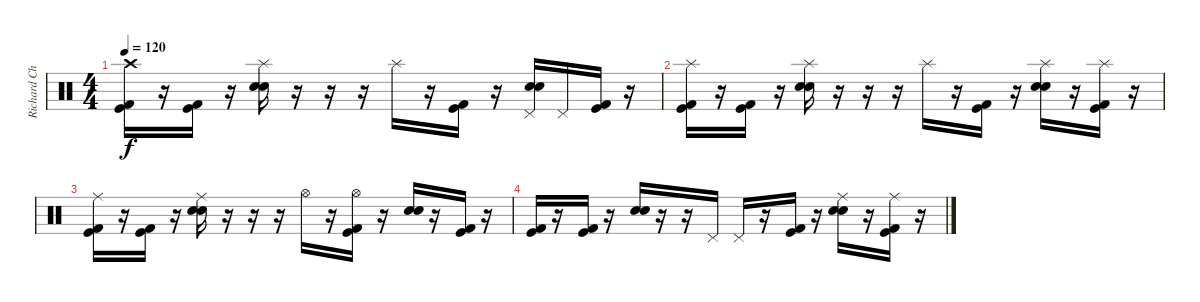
\track ("Richard Christy" "Richard Ch") {instrument percussion}
\staff {score}
\articulation defaults
\ts (4 4)
\tempo 120
\clef neutral
\ks c
("Crash high (hit)" "Kick (hit)" "Kick (hit) 2").16{dy f} r.16 ("Kick (hit)" "Kick (hit) 2").16 r.16 ("Splash (hit)" "Electric Snare (hit)" "Snare (hit) 2").16 r.16 r.16 r.16 "Splash (hit)".16 r.16 ("Kick (hit)" "Kick (hit) 2").16 r.16 ("Pedal Hi-Hat (hit)" "Electric Snare (hit)" "Snare (hit) 2").16 "Pedal Hi-Hat (hit)".16 ("Kick (hit)" "Kick (hit) 2").16 r.16 |
("Splash (hit)" "Kick (hit)" "Kick (hit) 2").16 r.16 ("Kick (hit)" "Kick (hit) 2").16 r.16 ("Splash (hit)" "Electric Snare (hit)" "Snare (hit) 2").16 r.16 r.16 r.16 "Splash (hit)".16 r.16 ("Kick (hit)" "Kick (hit) 2").16 r.16 ("Splash (hit)" "Electric Snare (hit)" "Snare (hit) 2").16 r.16 ("Splash (hit)" "Kick (hit)" "Kick (hit) 2").16 r.16 |
("Ride (middle)" "Kick (hit)" "Kick (hit) 2").16 r.16 ("Kick (hit)" "Kick (hit) 2").16 r.16 ("Ride (middle)" "Electric Snare (hit)" "Snare (hit) 2").16 r.16 r.16 r.16 "Hi-Hat (open)".16 r.16 ("Hi-Hat (open)" "Kick (hit)" "Kick (hit) 2").16 r.16 ("Electric Snare (hit)" "Snare (hit) 2").16 r.16 ("Kick (hit)" "Kick (hit) 2").16 r.16 |
("Kick (hit)" "Kick (hit) 2").16 r.16 ("Kick (hit)" "Kick (hit) 2").16 r.16 ("Electric Snare (hit)" "Snare (hit) 2").16 r.16 r.16 "Pedal Hi-Hat (hit)".16 "Pedal Hi-Hat (hit)".16 r.16 ("Kick (hit)" "Kick (hit) 2").16 r.16 ("Ride (middle)" "Electric Snare (hit)" "Snare (hit) 2").16 r.16 ("Ride (middle)" "Kick (hit)" "Kick (hit) 2").16 r.16
